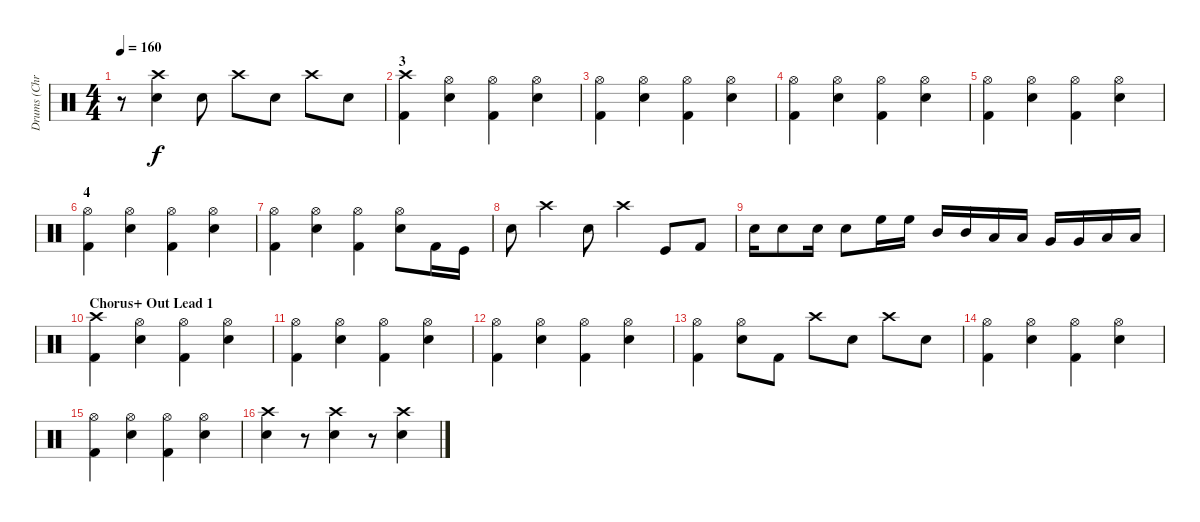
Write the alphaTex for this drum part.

\track ("Drums (Chris Efthimiadis)" "Drums (Chr") {instrument percussion}
\staff {score}
\articulation defaults
\ts (4 4)
\tempo 160
\clef neutral
\ks c
r.8{dy f} ("Crash high (hit)" "Snare (hit) 2").4 "Snare (hit) 2".8 "Crash high (hit)".8 "Snare (hit) 2".8 "Crash high (hit)".8 "Snare (hit) 2".8 |
\section ("" "3")
("Crash high (hit)" "Kick (hit) 2").4 ("Hi-Hat (open)" "Snare (hit) 2").4 ("Hi-Hat (open)" "Kick (hit) 2").4 ("Hi-Hat (open)" "Snare (hit) 2").4 |
("Hi-Hat (open)" "Kick (hit) 2").4 ("Hi-Hat (open)" "Snare (hit) 2").4 ("Hi-Hat (open)" "Kick (hit) 2").4 ("Hi-Hat (open)" "Snare (hit) 2").4 |
("Hi-Hat (open)" "Kick (hit) 2").4 ("Hi-Hat (open)" "Snare (hit) 2").4 ("Hi-Hat (open)" "Kick (hit) 2").4 ("Hi-Hat (open)" "Snare (hit) 2").4 |
("Hi-Hat (open)" "Kick (hit) 2").4 ("Hi-Hat (open)" "Snare (hit) 2").4 ("Hi-Hat (open)" "Kick (hit) 2").4 ("Hi-Hat (open)" "Snare (hit) 2").4 |
\section ("" "4")
("Hi-Hat (open)" "Kick (hit) 2").4 ("Hi-Hat (open)" "Snare (hit) 2").4 ("Hi-Hat (open)" "Kick (hit) 2").4 ("Hi-Hat (open)" "Snare (hit) 2").4 |
("Hi-Hat (open)" "Kick (hit) 2").4 ("Hi-Hat (open)" "Snare (hit) 2").4 ("Hi-Hat (open)" "Kick (hit) 2").4 ("Hi-Hat (open)" "Snare (hit) 2").8 "Kick (hit) 2".16 "Kick (hit)".16 |
"Snare (hit) 2".8 "Crash high (hit)".4 "Snare (hit) 2".8 "Crash high (hit)".4 "Kick (hit)".8 "Kick (hit) 2".8 |
"Snare (hit) 2".16 "Snare (hit) 2".8 "Snare (hit) 2".16 "Snare (hit) 2".8 "High Floor Tom (hit)".16 "High Floor Tom (hit)".16 "Mid Tom (hit)".16 "Mid Tom (hit)".16 "Low Tom (hit)".16 "Low Tom (hit)".16 "Very Low Tom (hit)".16 "Very Low Tom (hit)".16 "Low Floor Tom (hit)".16 "Low Floor Tom (hit)".16 |
\section ("" "Chorus+ Out Lead 1")
("Crash high (hit)" "Kick (hit) 2").4 ("Hi-Hat (open)" "Snare (hit) 2").4 ("Hi-Hat (open)" "Kick (hit) 2").4 ("Hi-Hat (open)" "Snare (hit) 2").4 |
("Hi-Hat (open)" "Kick (hit) 2").4 ("Hi-Hat (open)" "Snare (hit) 2").4 ("Hi-Hat (open)" "Kick (hit) 2").4 ("Hi-Hat (open)" "Snare (hit) 2").4 |
("Hi-Hat (open)" "Kick (hit) 2").4 ("Hi-Hat (open)" "Snare (hit) 2").4 ("Hi-Hat (open)" "Kick (hit) 2").4 ("Hi-Hat (open)" "Snare (hit) 2").4 |
("Hi-Hat (open)" "Kick (hit) 2").4 ("Hi-Hat (open)" "Snare (hit) 2").8 "Kick (hit) 2".8 "Crash high (hit)".8 "Snare (hit) 2".8 "Crash high (hit)".8 "Snare (hit) 2".8 |
("Hi-Hat (open)" "Kick (hit) 2").4 ("Hi-Hat (open)" "Snare (hit) 2").4 ("Hi-Hat (open)" "Kick (hit) 2").4 ("Hi-Hat (open)" "Snare (hit) 2").4 |
("Hi-Hat (open)" "Kick (hit) 2").4 ("Hi-Hat (open)" "Snare (hit) 2").4 ("Hi-Hat (open)" "Kick (hit) 2").4 ("Hi-Hat (open)" "Snare (hit) 2").4 |
("Crash high (hit)" "Snare (hit) 2").4 r.8 ("Crash high (hit)" "Snare (hit) 2").4 r.8 ("Crash high (hit)" "Snare (hit) 2").4
